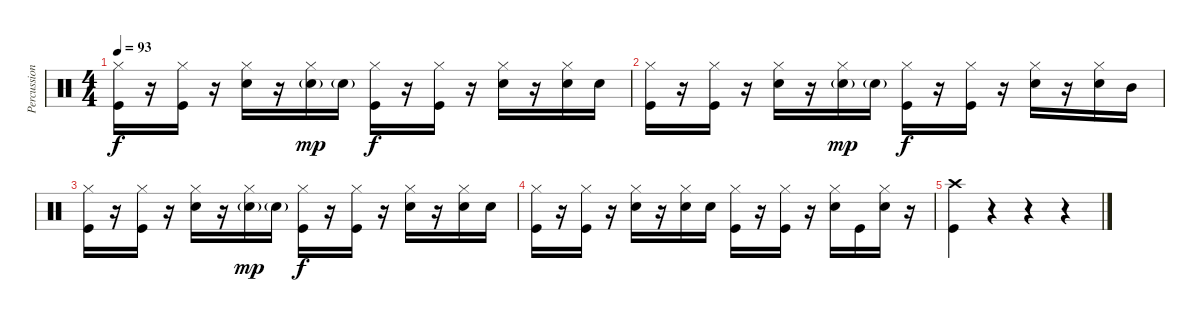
\track ("Percussion" "Percussion") {instrument percussion}
\staff {score}
\articulation defaults
\ts (4 4)
\tempo 93
\clef neutral
\ks c
("Hi-Hat (closed)" "Kick (hit)").16{dy f} r.16 ("Hi-Hat (closed)" "Kick (hit)").16 r.16 ("Hi-Hat (closed)" "Snare (hit) 2").16 r.16 ("Hi-Hat (closed)" "Snare (hit) 2"{g}).16{dy mp} "Snare (hit) 2"{g}.16 ("Hi-Hat (closed)" "Kick (hit)").16{dy f} r.16 ("Hi-Hat (closed)" "Kick (hit)").16 r.16 ("Hi-Hat (closed)" "Snare (hit) 2").16 r.16 ("Hi-Hat (closed)" "Snare (hit) 2").16 "Snare (hit) 2".16 |
("Hi-Hat (closed)" "Kick (hit)").16 r.16 ("Hi-Hat (closed)" "Kick (hit)").16 r.16 ("Hi-Hat (closed)" "Snare (hit) 2").16 r.16 ("Hi-Hat (closed)" "Snare (hit) 2"{g}).16{dy mp} "Snare (hit) 2"{g}.16 ("Hi-Hat (closed)" "Kick (hit)").16{dy f} r.16 ("Hi-Hat (closed)" "Kick (hit)").16 r.16 ("Hi-Hat (closed)" "Snare (hit) 2").16 r.16 ("Hi-Hat (closed)" "Snare (hit) 2").16 "Mid Tom (hit)".16 |
("Hi-Hat (closed)" "Kick (hit)").16 r.16 ("Hi-Hat (closed)" "Kick (hit)").16 r.16 ("Hi-Hat (closed)" "Snare (hit) 2").16 r.16 ("Hi-Hat (closed)" "Snare (hit) 2"{g}).16{dy mp} "Snare (hit) 2"{g}.16 ("Hi-Hat (closed)" "Kick (hit)").16{dy f} r.16 ("Hi-Hat (closed)" "Kick (hit)").16 r.16 ("Hi-Hat (closed)" "Snare (hit) 2").16 r.16 ("Hi-Hat (closed)" "Snare (hit) 2").16 "Snare (hit) 2".16 |
("Hi-Hat (closed)" "Kick (hit)").16 r.16 ("Hi-Hat (closed)" "Kick (hit)").16 r.16 ("Hi-Hat (closed)" "Snare (hit) 2").16 r.16 ("Hi-Hat (closed)" "Snare (hit) 2").16 "Snare (hit) 2".16 ("Hi-Hat (closed)" "Kick (hit)").16 r.16 ("Hi-Hat (closed)" "Kick (hit)").16 r.16 ("Hi-Hat (closed)" "Snare (hit) 2").16 "Kick (hit)".16 ("Hi-Hat (closed)" "Snare (hit) 2").16 r.16 |
("Crash high (hit)" "Kick (hit)").4 r.4 r.4 r.4
